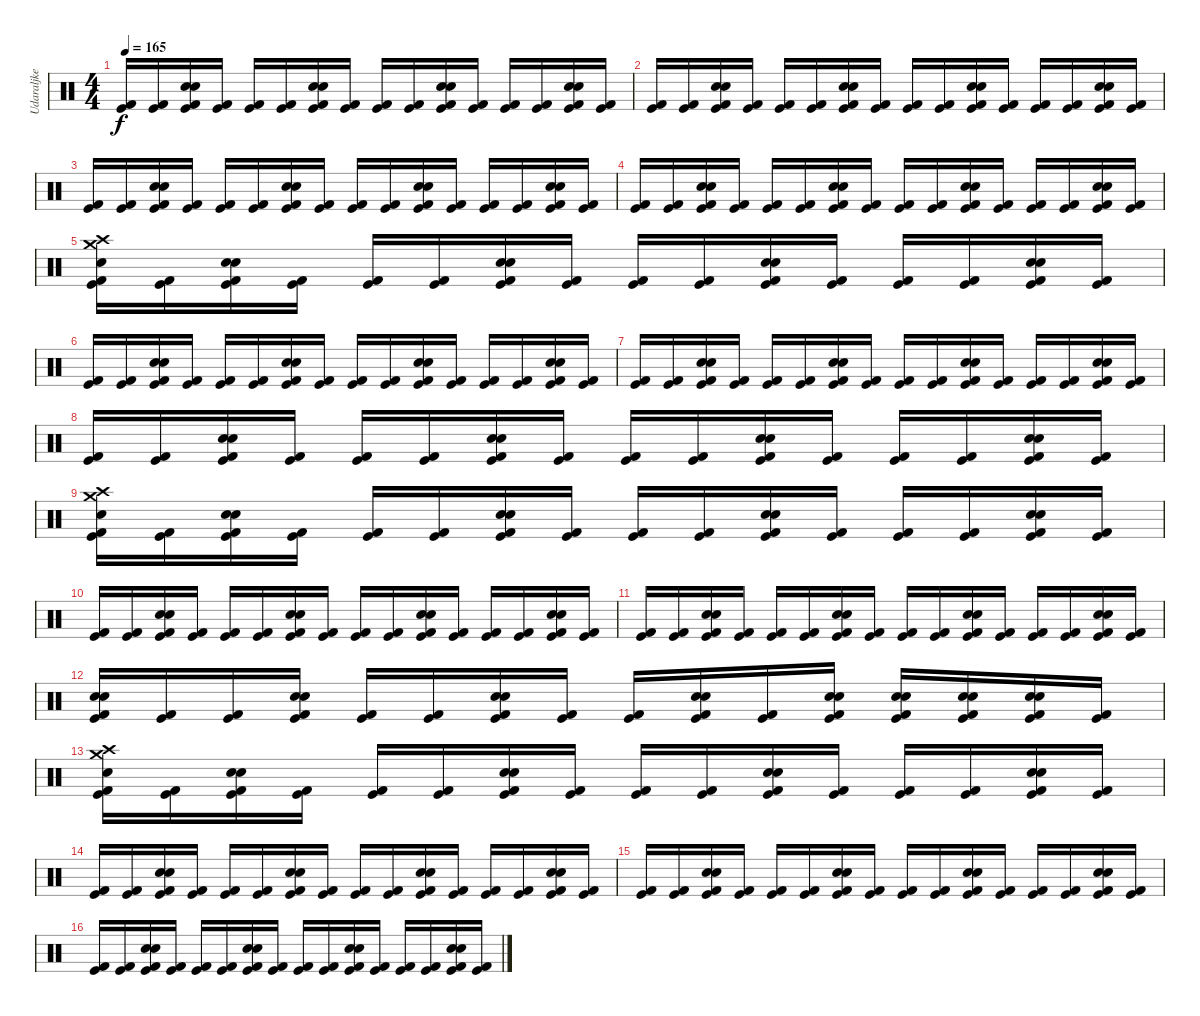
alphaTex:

\track ("Udaraljke" "Udaraljke") {instrument percussion}
\staff {score}
\articulation defaults
\ts (4 4)
\tempo 165
\clef neutral
\ks c
("Kick (hit) 2" "Kick (hit)").16{dy f} ("Kick (hit) 2" "Kick (hit)").16 ("Snare (hit) 2" "Snare (hit) 2" "Kick (hit) 2" "Kick (hit)").16 ("Kick (hit) 2" "Kick (hit)").16 ("Kick (hit) 2" "Kick (hit)").16 ("Kick (hit) 2" "Kick (hit)").16 ("Snare (hit) 2" "Snare (hit) 2" "Kick (hit) 2" "Kick (hit)").16 ("Kick (hit) 2" "Kick (hit)").16 ("Kick (hit) 2" "Kick (hit)").16 ("Kick (hit) 2" "Kick (hit)").16 ("Snare (hit) 2" "Snare (hit) 2" "Kick (hit) 2" "Kick (hit)").16 ("Kick (hit) 2" "Kick (hit)").16 ("Kick (hit) 2" "Kick (hit)").16 ("Kick (hit) 2" "Kick (hit)").16 ("Snare (hit) 2" "Snare (hit) 2" "Kick (hit) 2" "Kick (hit)").16 ("Kick (hit) 2" "Kick (hit)").16 |
("Kick (hit) 2" "Kick (hit)").16 ("Kick (hit) 2" "Kick (hit)").16 ("Snare (hit) 2" "Snare (hit) 2" "Kick (hit) 2" "Kick (hit)").16 ("Kick (hit) 2" "Kick (hit)").16 ("Kick (hit) 2" "Kick (hit)").16 ("Kick (hit) 2" "Kick (hit)").16 ("Snare (hit) 2" "Snare (hit) 2" "Kick (hit) 2" "Kick (hit)").16 ("Kick (hit) 2" "Kick (hit)").16 ("Kick (hit) 2" "Kick (hit)").16 ("Kick (hit) 2" "Kick (hit)").16 ("Snare (hit) 2" "Snare (hit) 2" "Kick (hit) 2" "Kick (hit)").16 ("Kick (hit) 2" "Kick (hit)").16 ("Kick (hit) 2" "Kick (hit)").16 ("Kick (hit) 2" "Kick (hit)").16 ("Snare (hit) 2" "Snare (hit) 2" "Kick (hit) 2" "Kick (hit)").16 ("Kick (hit) 2" "Kick (hit)").16 |
("Kick (hit) 2" "Kick (hit)").16 ("Kick (hit) 2" "Kick (hit)").16 ("Snare (hit) 2" "Snare (hit) 2" "Kick (hit) 2" "Kick (hit)").16 ("Kick (hit) 2" "Kick (hit)").16 ("Kick (hit) 2" "Kick (hit)").16 ("Kick (hit) 2" "Kick (hit)").16 ("Snare (hit) 2" "Snare (hit) 2" "Kick (hit) 2" "Kick (hit)").16 ("Kick (hit) 2" "Kick (hit)").16 ("Kick (hit) 2" "Kick (hit)").16 ("Kick (hit) 2" "Kick (hit)").16 ("Snare (hit) 2" "Snare (hit) 2" "Kick (hit) 2" "Kick (hit)").16 ("Kick (hit) 2" "Kick (hit)").16 ("Kick (hit) 2" "Kick (hit)").16 ("Kick (hit) 2" "Kick (hit)").16 ("Snare (hit) 2" "Snare (hit) 2" "Kick (hit) 2" "Kick (hit)").16 ("Kick (hit) 2" "Kick (hit)").16 |
("Kick (hit) 2" "Kick (hit)").16 ("Kick (hit) 2" "Kick (hit)").16 ("Snare (hit) 2" "Snare (hit) 2" "Kick (hit) 2" "Kick (hit)").16 ("Kick (hit) 2" "Kick (hit)").16 ("Kick (hit) 2" "Kick (hit)").16 ("Kick (hit) 2" "Kick (hit)").16 ("Snare (hit) 2" "Snare (hit) 2" "Kick (hit) 2" "Kick (hit)").16 ("Kick (hit) 2" "Kick (hit)").16 ("Kick (hit) 2" "Kick (hit)").16 ("Kick (hit) 2" "Kick (hit)").16 ("Snare (hit) 2" "Snare (hit) 2" "Kick (hit) 2" "Kick (hit)").16 ("Kick (hit) 2" "Kick (hit)").16 ("Kick (hit) 2" "Kick (hit)").16 ("Kick (hit) 2" "Kick (hit)").16 ("Snare (hit) 2" "Snare (hit) 2" "Kick (hit) 2" "Kick (hit)").16 ("Kick (hit) 2" "Kick (hit)").16 |
("Crash medium (hit)" "Crash high (hit)" "Snare (hit) 2" "Kick (hit) 2" "Kick (hit)").16 ("Kick (hit) 2" "Kick (hit)").16 ("Snare (hit) 2" "Snare (hit) 2" "Kick (hit) 2" "Kick (hit)").16 ("Kick (hit) 2" "Kick (hit)").16 ("Kick (hit) 2" "Kick (hit)").16 ("Kick (hit) 2" "Kick (hit)").16 ("Snare (hit) 2" "Snare (hit) 2" "Kick (hit) 2" "Kick (hit)").16 ("Kick (hit) 2" "Kick (hit)").16 ("Kick (hit) 2" "Kick (hit)").16 ("Kick (hit) 2" "Kick (hit)").16 ("Snare (hit) 2" "Snare (hit) 2" "Kick (hit) 2" "Kick (hit)").16 ("Kick (hit) 2" "Kick (hit)").16 ("Kick (hit) 2" "Kick (hit)").16 ("Kick (hit) 2" "Kick (hit)").16 ("Snare (hit) 2" "Snare (hit) 2" "Kick (hit) 2" "Kick (hit)").16 ("Kick (hit) 2" "Kick (hit)").16 |
("Kick (hit) 2" "Kick (hit)").16 ("Kick (hit) 2" "Kick (hit)").16 ("Snare (hit) 2" "Snare (hit) 2" "Kick (hit) 2" "Kick (hit)").16 ("Kick (hit) 2" "Kick (hit)").16 ("Kick (hit) 2" "Kick (hit)").16 ("Kick (hit) 2" "Kick (hit)").16 ("Snare (hit) 2" "Snare (hit) 2" "Kick (hit) 2" "Kick (hit)").16 ("Kick (hit) 2" "Kick (hit)").16 ("Kick (hit) 2" "Kick (hit)").16 ("Kick (hit) 2" "Kick (hit)").16 ("Snare (hit) 2" "Snare (hit) 2" "Kick (hit) 2" "Kick (hit)").16 ("Kick (hit) 2" "Kick (hit)").16 ("Kick (hit) 2" "Kick (hit)").16 ("Kick (hit) 2" "Kick (hit)").16 ("Snare (hit) 2" "Snare (hit) 2" "Kick (hit) 2" "Kick (hit)").16 ("Kick (hit) 2" "Kick (hit)").16 |
("Kick (hit) 2" "Kick (hit)").16 ("Kick (hit) 2" "Kick (hit)").16 ("Snare (hit) 2" "Snare (hit) 2" "Kick (hit) 2" "Kick (hit)").16 ("Kick (hit) 2" "Kick (hit)").16 ("Kick (hit) 2" "Kick (hit)").16 ("Kick (hit) 2" "Kick (hit)").16 ("Snare (hit) 2" "Snare (hit) 2" "Kick (hit) 2" "Kick (hit)").16 ("Kick (hit) 2" "Kick (hit)").16 ("Kick (hit) 2" "Kick (hit)").16 ("Kick (hit) 2" "Kick (hit)").16 ("Snare (hit) 2" "Snare (hit) 2" "Kick (hit) 2" "Kick (hit)").16 ("Kick (hit) 2" "Kick (hit)").16 ("Kick (hit) 2" "Kick (hit)").16 ("Kick (hit) 2" "Kick (hit)").16 ("Snare (hit) 2" "Snare (hit) 2" "Kick (hit) 2" "Kick (hit)").16 ("Kick (hit) 2" "Kick (hit)").16 |
("Kick (hit) 2" "Kick (hit)").16 ("Kick (hit) 2" "Kick (hit)").16 ("Snare (hit) 2" "Snare (hit) 2" "Kick (hit) 2" "Kick (hit)").16 ("Kick (hit) 2" "Kick (hit)").16 ("Kick (hit) 2" "Kick (hit)").16 ("Kick (hit) 2" "Kick (hit)").16 ("Snare (hit) 2" "Snare (hit) 2" "Kick (hit) 2" "Kick (hit)").16 ("Kick (hit) 2" "Kick (hit)").16 ("Kick (hit) 2" "Kick (hit)").16 ("Kick (hit) 2" "Kick (hit)").16 ("Snare (hit) 2" "Snare (hit) 2" "Kick (hit) 2" "Kick (hit)").16 ("Kick (hit) 2" "Kick (hit)").16 ("Kick (hit) 2" "Kick (hit)").16 ("Kick (hit) 2" "Kick (hit)").16 ("Snare (hit) 2" "Snare (hit) 2" "Kick (hit) 2" "Kick (hit)").16 ("Kick (hit) 2" "Kick (hit)").16 |
("Crash medium (hit)" "Crash high (hit)" "Snare (hit) 2" "Kick (hit) 2" "Kick (hit)").16 ("Kick (hit) 2" "Kick (hit)").16 ("Snare (hit) 2" "Snare (hit) 2" "Kick (hit) 2" "Kick (hit)").16 ("Kick (hit) 2" "Kick (hit)").16 ("Kick (hit) 2" "Kick (hit)").16 ("Kick (hit) 2" "Kick (hit)").16 ("Snare (hit) 2" "Snare (hit) 2" "Kick (hit) 2" "Kick (hit)").16 ("Kick (hit) 2" "Kick (hit)").16 ("Kick (hit) 2" "Kick (hit)").16 ("Kick (hit) 2" "Kick (hit)").16 ("Snare (hit) 2" "Snare (hit) 2" "Kick (hit) 2" "Kick (hit)").16 ("Kick (hit) 2" "Kick (hit)").16 ("Kick (hit) 2" "Kick (hit)").16 ("Kick (hit) 2" "Kick (hit)").16 ("Snare (hit) 2" "Snare (hit) 2" "Kick (hit) 2" "Kick (hit)").16 ("Kick (hit) 2" "Kick (hit)").16 |
("Kick (hit) 2" "Kick (hit)").16 ("Kick (hit) 2" "Kick (hit)").16 ("Snare (hit) 2" "Snare (hit) 2" "Kick (hit) 2" "Kick (hit)").16 ("Kick (hit) 2" "Kick (hit)").16 ("Kick (hit) 2" "Kick (hit)").16 ("Kick (hit) 2" "Kick (hit)").16 ("Snare (hit) 2" "Snare (hit) 2" "Kick (hit) 2" "Kick (hit)").16 ("Kick (hit) 2" "Kick (hit)").16 ("Kick (hit) 2" "Kick (hit)").16 ("Kick (hit) 2" "Kick (hit)").16 ("Snare (hit) 2" "Snare (hit) 2" "Kick (hit) 2" "Kick (hit)").16 ("Kick (hit) 2" "Kick (hit)").16 ("Kick (hit) 2" "Kick (hit)").16 ("Kick (hit) 2" "Kick (hit)").16 ("Snare (hit) 2" "Snare (hit) 2" "Kick (hit) 2" "Kick (hit)").16 ("Kick (hit) 2" "Kick (hit)").16 |
("Kick (hit) 2" "Kick (hit)").16 ("Kick (hit) 2" "Kick (hit)").16 ("Snare (hit) 2" "Snare (hit) 2" "Kick (hit) 2" "Kick (hit)").16 ("Kick (hit) 2" "Kick (hit)").16 ("Kick (hit) 2" "Kick (hit)").16 ("Kick (hit) 2" "Kick (hit)").16 ("Snare (hit) 2" "Snare (hit) 2" "Kick (hit) 2" "Kick (hit)").16 ("Kick (hit) 2" "Kick (hit)").16 ("Kick (hit) 2" "Kick (hit)").16 ("Kick (hit) 2" "Kick (hit)").16 ("Snare (hit) 2" "Snare (hit) 2" "Kick (hit) 2" "Kick (hit)").16 ("Kick (hit) 2" "Kick (hit)").16 ("Kick (hit) 2" "Kick (hit)").16 ("Kick (hit) 2" "Kick (hit)").16 ("Snare (hit) 2" "Snare (hit) 2" "Kick (hit) 2" "Kick (hit)").16 ("Kick (hit) 2" "Kick (hit)").16 |
("Snare (hit) 2" "Snare (hit) 2" "Kick (hit) 2" "Kick (hit)").16 ("Kick (hit) 2" "Kick (hit)").16 ("Kick (hit) 2" "Kick (hit)").16 ("Snare (hit) 2" "Snare (hit) 2" "Kick (hit) 2" "Kick (hit)").16 ("Kick (hit) 2" "Kick (hit)").16 ("Kick (hit) 2" "Kick (hit)").16 ("Snare (hit) 2" "Snare (hit) 2" "Kick (hit) 2" "Kick (hit)").16 ("Kick (hit) 2" "Kick (hit)").16 ("Kick (hit) 2" "Kick (hit)").16 ("Snare (hit) 2" "Snare (hit) 2" "Kick (hit) 2" "Kick (hit)").16 ("Kick (hit) 2" "Kick (hit)").16 ("Snare (hit) 2" "Snare (hit) 2" "Kick (hit) 2" "Kick (hit)").16 ("Snare (hit) 2" "Snare (hit) 2" "Kick (hit) 2" "Kick (hit)").16 ("Snare (hit) 2" "Snare (hit) 2" "Kick (hit) 2" "Kick (hit)").16 ("Snare (hit) 2" "Snare (hit) 2" "Kick (hit) 2" "Kick (hit)").16 ("Kick (hit) 2" "Kick (hit)").16 |
("Crash medium (hit)" "Crash high (hit)" "Snare (hit) 2" "Kick (hit) 2" "Kick (hit)").16 ("Kick (hit) 2" "Kick (hit)").16 ("Snare (hit) 2" "Snare (hit) 2" "Kick (hit) 2" "Kick (hit)").16 ("Kick (hit) 2" "Kick (hit)").16 ("Kick (hit) 2" "Kick (hit)").16 ("Kick (hit) 2" "Kick (hit)").16 ("Snare (hit) 2" "Snare (hit) 2" "Kick (hit) 2" "Kick (hit)").16 ("Kick (hit) 2" "Kick (hit)").16 ("Kick (hit) 2" "Kick (hit)").16 ("Kick (hit) 2" "Kick (hit)").16 ("Snare (hit) 2" "Snare (hit) 2" "Kick (hit) 2" "Kick (hit)").16 ("Kick (hit) 2" "Kick (hit)").16 ("Kick (hit) 2" "Kick (hit)").16 ("Kick (hit) 2" "Kick (hit)").16 ("Snare (hit) 2" "Snare (hit) 2" "Kick (hit) 2" "Kick (hit)").16 ("Kick (hit) 2" "Kick (hit)").16 |
("Kick (hit) 2" "Kick (hit)").16 ("Kick (hit) 2" "Kick (hit)").16 ("Snare (hit) 2" "Snare (hit) 2" "Kick (hit) 2" "Kick (hit)").16 ("Kick (hit) 2" "Kick (hit)").16 ("Kick (hit) 2" "Kick (hit)").16 ("Kick (hit) 2" "Kick (hit)").16 ("Snare (hit) 2" "Snare (hit) 2" "Kick (hit) 2" "Kick (hit)").16 ("Kick (hit) 2" "Kick (hit)").16 ("Kick (hit) 2" "Kick (hit)").16 ("Kick (hit) 2" "Kick (hit)").16 ("Snare (hit) 2" "Snare (hit) 2" "Kick (hit) 2" "Kick (hit)").16 ("Kick (hit) 2" "Kick (hit)").16 ("Kick (hit) 2" "Kick (hit)").16 ("Kick (hit) 2" "Kick (hit)").16 ("Snare (hit) 2" "Snare (hit) 2" "Kick (hit) 2" "Kick (hit)").16 ("Kick (hit) 2" "Kick (hit)").16 |
("Kick (hit) 2" "Kick (hit)").16 ("Kick (hit) 2" "Kick (hit)").16 ("Snare (hit) 2" "Snare (hit) 2" "Kick (hit) 2" "Kick (hit)").16 ("Kick (hit) 2" "Kick (hit)").16 ("Kick (hit) 2" "Kick (hit)").16 ("Kick (hit) 2" "Kick (hit)").16 ("Snare (hit) 2" "Snare (hit) 2" "Kick (hit) 2" "Kick (hit)").16 ("Kick (hit) 2" "Kick (hit)").16 ("Kick (hit) 2" "Kick (hit)").16 ("Kick (hit) 2" "Kick (hit)").16 ("Snare (hit) 2" "Snare (hit) 2" "Kick (hit) 2" "Kick (hit)").16 ("Kick (hit) 2" "Kick (hit)").16 ("Kick (hit) 2" "Kick (hit)").16 ("Kick (hit) 2" "Kick (hit)").16 ("Snare (hit) 2" "Snare (hit) 2" "Kick (hit) 2" "Kick (hit)").16 ("Kick (hit) 2" "Kick (hit)").16 |
("Kick (hit) 2" "Kick (hit)").16 ("Kick (hit) 2" "Kick (hit)").16 ("Snare (hit) 2" "Snare (hit) 2" "Kick (hit) 2" "Kick (hit)").16 ("Kick (hit) 2" "Kick (hit)").16 ("Kick (hit) 2" "Kick (hit)").16 ("Kick (hit) 2" "Kick (hit)").16 ("Snare (hit) 2" "Snare (hit) 2" "Kick (hit) 2" "Kick (hit)").16 ("Kick (hit) 2" "Kick (hit)").16 ("Kick (hit) 2" "Kick (hit)").16 ("Kick (hit) 2" "Kick (hit)").16 ("Snare (hit) 2" "Snare (hit) 2" "Kick (hit) 2" "Kick (hit)").16 ("Kick (hit) 2" "Kick (hit)").16 ("Kick (hit) 2" "Kick (hit)").16 ("Kick (hit) 2" "Kick (hit)").16 ("Snare (hit) 2" "Snare (hit) 2" "Kick (hit) 2" "Kick (hit)").16 ("Kick (hit) 2" "Kick (hit)").16
